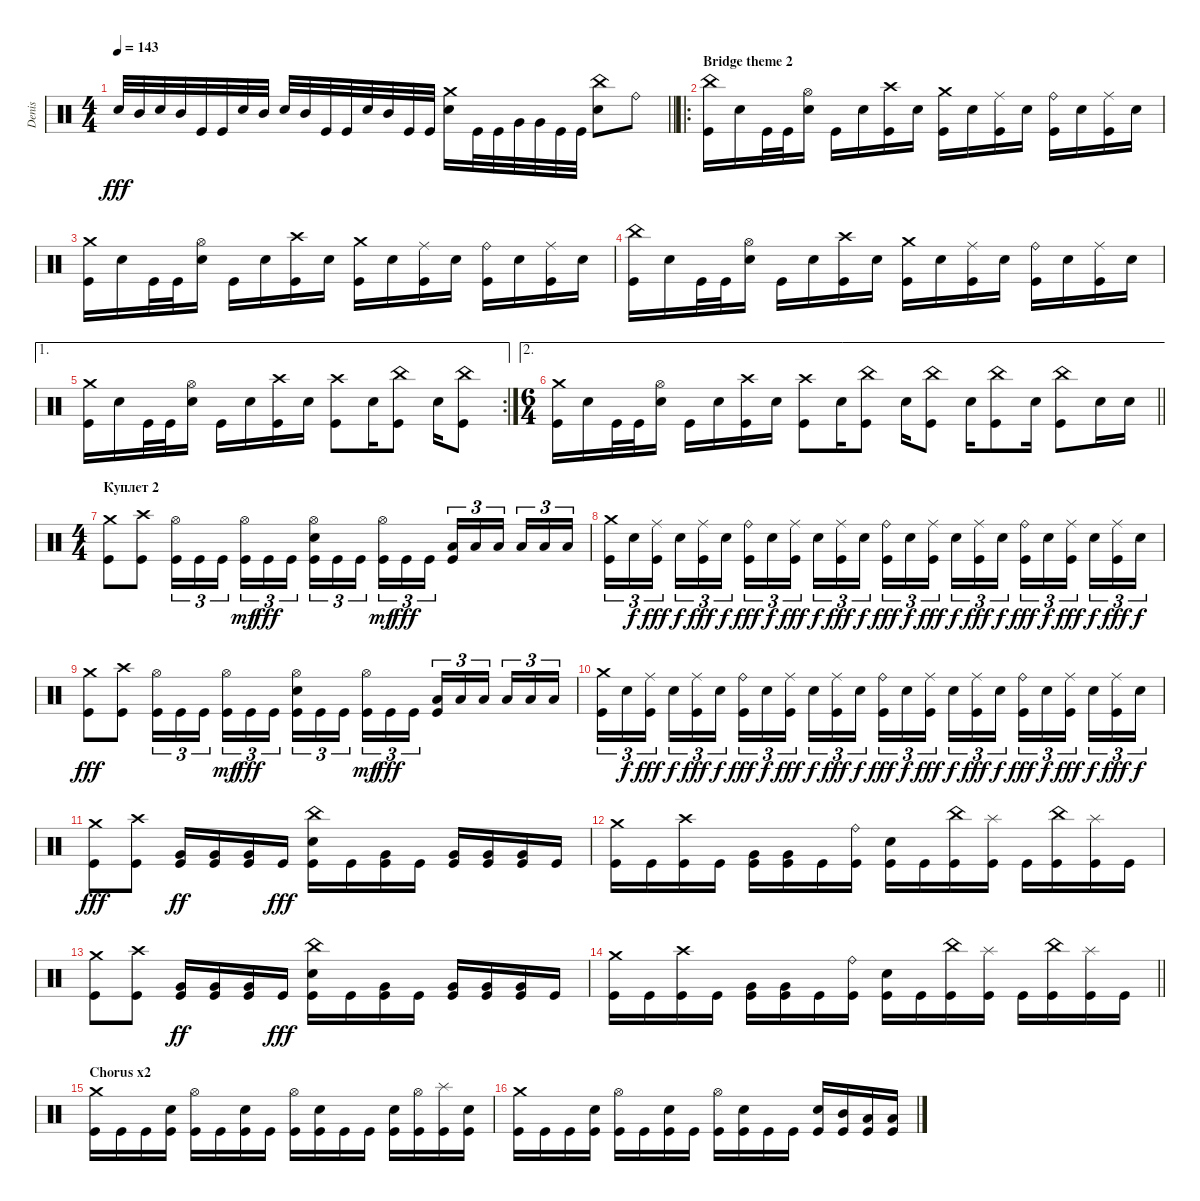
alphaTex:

\track ("Denis" "Denis") {instrument percussion}
\staff {score}
\articulation defaults
\ts (4 4)
\tempo 143
\clef neutral
\barLineRight lightlight
\ks c "Electric Snare (hit)".32{dy fff} "Mid Tom (hit)".32 "Electric Snare (hit)".32 "Mid Tom (hit)".32 "Kick (hit)".32 "Kick (hit)".32 "Electric Snare (hit)".32 "Mid Tom (hit)".32 "Electric Snare (hit)".32 "Mid Tom (hit)".32 "Kick (hit)".32 "Kick (hit)".32 "Electric Snare (hit)".32 "Mid Tom (hit)".32 "Kick (hit)".32 "Kick (hit)".32
("Electric Snare (hit)" "Crash medium (hit)").16 "Kick (hit)".32 "Kick (hit)".32 "Very Low Tom (hit)".32 "Very Low Tom (hit)".32 "Kick (hit)".32 "Kick (hit)".32 ("Electric Snare (hit)" "China (hit)").8 "Ride (bell)".8 |
\ro
\section ("" "Bridge theme 2")
("Kick (hit)" "China (hit)").16 "Electric Snare (hit)".16 "Kick (hit)".32 "Kick (hit)".32 ("Electric Snare (hit)" "Hi-Hat (open)").16 "Kick (hit)".16 "Electric Snare (hit)".16 ("Kick (hit)" "Crash high (hit)").16 "Electric Snare (hit)".16 ("Kick (hit)" "Crash medium (hit)").16 "Electric Snare (hit)".16 ("Kick (hit)" "Ride (middle)").16 "Electric Snare (hit)".16 ("Kick (hit)" "Ride (bell)").16 "Electric Snare (hit)".16 ("Kick (hit)" "Ride (middle)").16 "Electric Snare (hit)".16 |
("Kick (hit)" "Crash medium (hit)").16 "Electric Snare (hit)".16 "Kick (hit)".32 "Kick (hit)".32 ("Electric Snare (hit)" "Hi-Hat (open)").16 "Kick (hit)".16 "Electric Snare (hit)".16 ("Kick (hit)" "Crash high (hit)").16 "Electric Snare (hit)".16 ("Kick (hit)" "Crash medium (hit)").16 "Electric Snare (hit)".16 ("Kick (hit)" "Ride (middle)").16 "Electric Snare (hit)".16 ("Kick (hit)" "Ride (bell)").16 "Electric Snare (hit)".16 ("Kick (hit)" "Ride (middle)").16 "Electric Snare (hit)".16 |
("Kick (hit)" "China (hit)").16 "Electric Snare (hit)".16 "Kick (hit)".32 "Kick (hit)".32 ("Electric Snare (hit)" "Hi-Hat (open)").16 "Kick (hit)".16 "Electric Snare (hit)".16 ("Kick (hit)" "Crash high (hit)").16 "Electric Snare (hit)".16 ("Kick (hit)" "Crash medium (hit)").16 "Electric Snare (hit)".16 ("Kick (hit)" "Ride (middle)").16 "Electric Snare (hit)".16 ("Kick (hit)" "Ride (bell)").16 "Electric Snare (hit)".16 ("Kick (hit)" "Ride (middle)").16 "Electric Snare (hit)".16 |
\ae 1
\rc 2
("Kick (hit)" "Crash medium (hit)").16 "Electric Snare (hit)".16 "Kick (hit)".32 "Kick (hit)".32 ("Electric Snare (hit)" "Hi-Hat (open)").16 "Kick (hit)".16 "Electric Snare (hit)".16 ("Kick (hit)" "Crash high (hit)").16 "Electric Snare (hit)".16 ("Kick (hit)" "Crash high (hit)").8 "Electric Snare (hit)".16 ("China (hit)" "Kick (hit)").8 "Electric Snare (hit)".16 ("Kick (hit)" "China (hit)").8 |
\ae 2
\ts (6 4)
\barLineRight lightlight
("Kick (hit)" "Crash medium (hit)").16 "Electric Snare (hit)".16 "Kick (hit)".32 "Kick (hit)".32 ("Electric Snare (hit)" "Hi-Hat (open)").16 "Kick (hit)".16 "Electric Snare (hit)".16 ("Kick (hit)" "Crash high (hit)").16 "Electric Snare (hit)".16 ("Kick (hit)" "Crash high (hit)").8 "Electric Snare (hit)".16 ("China (hit)" "Kick (hit)").8 "Electric Snare (hit)".16 ("Kick (hit)" "China (hit)").8 "Electric Snare (hit)".16 ("Kick (hit)" "China (hit)").8 "Electric Snare (hit)".16 ("Kick (hit)" "China (hit)").8 "Electric Snare (hit)".16 "Electric Snare (hit)".16 |
\ts (4 4)
\section ("" "Куплет 2")
("Crash medium (hit)" "Kick (hit)").8 ("Crash high (hit)" "Kick (hit)").8 ("Kick (hit)" "Hi-Hat (open)").16{tu (3 2)} "Kick (hit)".16{tu (3 2)} "Kick (hit)".16{tu (3 2) beam splitsecondary} ("Kick (hit)" "Hi-Hat (open)").16{tu (3 2) dy mf} "Kick (hit)".16{tu (3 2) dy fff} "Kick (hit)".16{tu (3 2)} ("Kick (hit)" "Hi-Hat (open)" "Electric Snare (hit)").16{tu (3 2)} "Kick (hit)".16{tu (3 2)} "Kick (hit)".16{tu (3 2) beam splitsecondary} ("Kick (hit)" "Hi-Hat (open)").16{tu (3 2) dy mf} "Kick (hit)".16{tu (3 2) dy fff} "Kick (hit)".16{tu (3 2)} ("Kick (hit)" "Low Tom (hit)").16{tu (3 2)} "Low Tom (hit)".16{tu (3 2)} "Low Tom (hit)".16{tu (3 2) beam splitsecondary} "Low Tom (hit)".16{tu (3 2)} "Low Tom (hit)".16{tu (3 2)} "Low Tom (hit)".16{tu (3 2)} |
("Crash medium (hit)" "Kick (hit)").16{tu (3 2)} "Electric Snare (hit)".16{tu (3 2) dy f} ("Kick (hit)" "Ride (middle)").16{tu (3 2) dy fff beam splitsecondary} "Electric Snare (hit)".16{tu (3 2) dy f} ("Kick (hit)" "Ride (middle)").16{tu (3 2) dy fff} "Electric Snare (hit)".16{tu (3 2) dy f} ("Kick (hit)" "Ride (bell)").16{tu (3 2) dy fff} "Electric Snare (hit)".16{tu (3 2) dy f} ("Kick (hit)" "Ride (middle)").16{tu (3 2) dy fff beam splitsecondary} "Electric Snare (hit)".16{tu (3 2) dy f} ("Kick (hit)" "Ride (middle)").16{tu (3 2) dy fff} "Electric Snare (hit)".16{tu (3 2) dy f} ("Kick (hit)" "Ride (bell)").16{tu (3 2) dy fff} "Electric Snare (hit)".16{tu (3 2) dy f} ("Kick (hit)" "Ride (middle)").16{tu (3 2) dy fff beam splitsecondary} "Electric Snare (hit)".16{tu (3 2) dy f} ("Kick (hit)" "Ride (middle)").16{tu (3 2) dy fff} "Electric Snare (hit)".16{tu (3 2) dy f} ("Kick (hit)" "Ride (bell)").16{tu (3 2) dy fff} "Electric Snare (hit)".16{tu (3 2) dy f} ("Kick (hit)" "Ride (middle)").16{tu (3 2) dy fff beam splitsecondary} "Electric Snare (hit)".16{tu (3 2) dy f} ("Kick (hit)" "Ride (middle)").16{tu (3 2) dy fff} "Electric Snare (hit)".16{tu (3 2) dy f} |
("Crash medium (hit)" "Kick (hit)").8{dy fff} ("Crash high (hit)" "Kick (hit)").8 ("Kick (hit)" "Hi-Hat (open)").16{tu (3 2)} "Kick (hit)".16{tu (3 2)} "Kick (hit)".16{tu (3 2) beam splitsecondary} ("Kick (hit)" "Hi-Hat (open)").16{tu (3 2) dy mf} "Kick (hit)".16{tu (3 2) dy fff} "Kick (hit)".16{tu (3 2)} ("Kick (hit)" "Hi-Hat (open)" "Electric Snare (hit)").16{tu (3 2)} "Kick (hit)".16{tu (3 2)} "Kick (hit)".16{tu (3 2) beam splitsecondary} ("Kick (hit)" "Hi-Hat (open)").16{tu (3 2) dy mf} "Kick (hit)".16{tu (3 2) dy fff} "Kick (hit)".16{tu (3 2)} ("Kick (hit)" "Low Tom (hit)").16{tu (3 2)} "Low Tom (hit)".16{tu (3 2)} "Low Tom (hit)".16{tu (3 2) beam splitsecondary} "Low Tom (hit)".16{tu (3 2)} "Low Tom (hit)".16{tu (3 2)} "Low Tom (hit)".16{tu (3 2)} |
("Crash medium (hit)" "Kick (hit)").16{tu (3 2)} "Electric Snare (hit)".16{tu (3 2) dy f} ("Kick (hit)" "Ride (middle)").16{tu (3 2) dy fff beam splitsecondary} "Electric Snare (hit)".16{tu (3 2) dy f} ("Kick (hit)" "Ride (middle)").16{tu (3 2) dy fff} "Electric Snare (hit)".16{tu (3 2) dy f} ("Kick (hit)" "Ride (bell)").16{tu (3 2) dy fff} "Electric Snare (hit)".16{tu (3 2) dy f} ("Kick (hit)" "Ride (middle)").16{tu (3 2) dy fff beam splitsecondary} "Electric Snare (hit)".16{tu (3 2) dy f} ("Kick (hit)" "Ride (middle)").16{tu (3 2) dy fff} "Electric Snare (hit)".16{tu (3 2) dy f} ("Kick (hit)" "Ride (bell)").16{tu (3 2) dy fff} "Electric Snare (hit)".16{tu (3 2) dy f} ("Kick (hit)" "Ride (middle)").16{tu (3 2) dy fff beam splitsecondary} "Electric Snare (hit)".16{tu (3 2) dy f} ("Kick (hit)" "Ride (middle)").16{tu (3 2) dy fff} "Electric Snare (hit)".16{tu (3 2) dy f} ("Kick (hit)" "Ride (bell)").16{tu (3 2) dy fff} "Electric Snare (hit)".16{tu (3 2) dy f} ("Kick (hit)" "Ride (middle)").16{tu (3 2) dy fff beam splitsecondary} "Electric Snare (hit)".16{tu (3 2) dy f} ("Kick (hit)" "Ride (middle)").16{tu (3 2) dy fff} "Electric Snare (hit)".16{tu (3 2) dy f} |
("Crash medium (hit)" "Kick (hit)").8{dy fff} ("Crash high (hit)" "Kick (hit)").8 ("Kick (hit)" "Very Low Tom (hit)").16{dy ff} ("Kick (hit)" "Very Low Tom (hit)").16 ("Kick (hit)" "Very Low Tom (hit)").16 "Kick (hit)".16{dy fff} ("Kick (hit)" "Electric Snare (hit)" "China (hit)").16 "Kick (hit)".16 ("Kick (hit)" "Very Low Tom (hit)").16 "Kick (hit)".16 ("Kick (hit)" "Very Low Tom (hit)").16 ("Kick (hit)" "Very Low Tom (hit)").16 ("Kick (hit)" "Very Low Tom (hit)").16 "Kick (hit)".16 |
("Kick (hit)" "Crash medium (hit)").16 "Kick (hit)".16 ("Kick (hit)" "Crash high (hit)").16 "Kick (hit)".16 ("Kick (hit)" "Very Low Tom (hit)").16 ("Kick (hit)" "Very Low Tom (hit)").16 "Kick (hit)".16 ("Kick (hit)" "Ride (bell)").16 ("Kick (hit)" "Electric Snare (hit)").16 "Kick (hit)".16 ("Kick (hit)" "China (hit)").16 ("Kick (hit)" "Splash (hit)").16 "Kick (hit)".16 ("Kick (hit)" "China (hit)").16 ("Kick (hit)" "Splash (hit)").16 "Kick (hit)".16 |
("Crash medium (hit)" "Kick (hit)").8 ("Crash high (hit)" "Kick (hit)").8 ("Kick (hit)" "Very Low Tom (hit)").16{dy ff} ("Kick (hit)" "Very Low Tom (hit)").16 ("Kick (hit)" "Very Low Tom (hit)").16 "Kick (hit)".16{dy fff} ("Kick (hit)" "Electric Snare (hit)" "China (hit)").16 "Kick (hit)".16 ("Kick (hit)" "Very Low Tom (hit)").16 "Kick (hit)".16 ("Kick (hit)" "Very Low Tom (hit)").16 ("Kick (hit)" "Very Low Tom (hit)").16 ("Kick (hit)" "Very Low Tom (hit)").16 "Kick (hit)".16 |
\barLineRight lightlight
("Kick (hit)" "Crash medium (hit)").16 "Kick (hit)".16 ("Kick (hit)" "Crash high (hit)").16 "Kick (hit)".16 ("Kick (hit)" "Very Low Tom (hit)").16 ("Kick (hit)" "Very Low Tom (hit)").16 "Kick (hit)".16 ("Kick (hit)" "Ride (bell)").16 ("Kick (hit)" "Electric Snare (hit)").16 "Kick (hit)".16 ("Kick (hit)" "China (hit)").16 ("Kick (hit)" "Splash (hit)").16 "Kick (hit)".16 ("Kick (hit)" "China (hit)").16 ("Kick (hit)" "Splash (hit)").16 "Kick (hit)".16 |
\section ("" "Chorus x2")
("Crash medium (hit)" "Kick (hit)").16 "Kick (hit)".16 "Kick (hit)".16 ("Kick (hit)" "Electric Snare (hit)").16 ("Kick (hit)" "Hi-Hat (open)").16 "Kick (hit)".16 ("Kick (hit)" "Electric Snare (hit)").16 "Kick (hit)".16 ("Kick (hit)" "Hi-Hat (open)").16 ("Kick (hit)" "Electric Snare (hit)").16 "Kick (hit)".16 "Kick (hit)".16 ("Kick (hit)" "Electric Snare (hit)").16 ("Kick (hit)" "Hi-Hat (open)").16 ("Kick (hit)" "Splash (hit)").16 ("Kick (hit)" "Electric Snare (hit)").16 |
("Crash medium (hit)" "Kick (hit)").16 "Kick (hit)".16 "Kick (hit)".16 ("Kick (hit)" "Electric Snare (hit)").16 ("Kick (hit)" "Hi-Hat (open)").16 "Kick (hit)".16 ("Kick (hit)" "Electric Snare (hit)").16 "Kick (hit)".16 ("Kick (hit)" "Hi-Hat (open)").16 ("Kick (hit)" "Electric Snare (hit)").16 "Kick (hit)".16 "Kick (hit)".16 ("Kick (hit)" "Electric Snare (hit)").16 ("Kick (hit)" "Mid Tom (hit)").16 ("Kick (hit)" "Low Tom (hit)").16 ("Kick (hit)" "Low Tom (hit)").16
